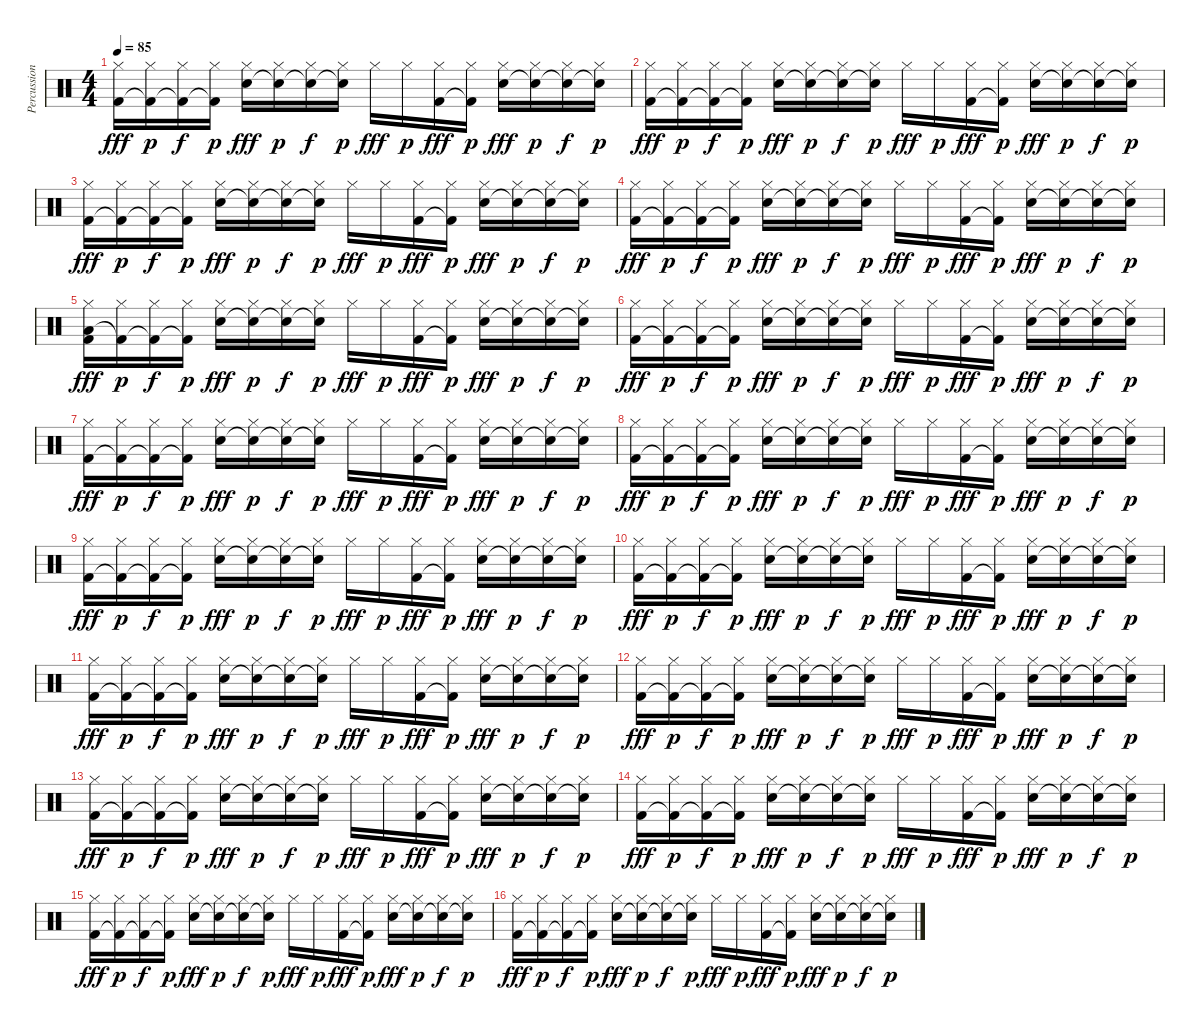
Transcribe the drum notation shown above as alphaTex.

\track ("Percussion" "Percussion") {instrument percussion}
\staff {score}
\articulation defaults
\ts (4 4)
\tempo 85
\clef neutral
\ks c
("Hi-Hat (closed)" "Kick (hit) 2").16{dy fff} ("Hi-Hat (closed)" "Kick (hit) 2"{t}).16{dy p} ("Hi-Hat (closed)" "Kick (hit) 2"{t}).16{dy f} ("Hi-Hat (closed)" "Kick (hit) 2"{t}).16{dy p} ("Hi-Hat (closed)" "Snare (hit) 2").16{dy fff} ("Hi-Hat (closed)" "Snare (hit) 2"{t}).16{dy p} ("Hi-Hat (closed)" "Snare (hit) 2"{t}).16{dy f} ("Hi-Hat (closed)" "Snare (hit) 2"{t}).16{dy p} "Hi-Hat (closed)".16{dy fff} "Hi-Hat (closed)".16{dy p} ("Hi-Hat (closed)" "Kick (hit) 2").16{dy fff} ("Hi-Hat (closed)" "Kick (hit) 2"{t}).16{dy p} ("Hi-Hat (closed)" "Snare (hit) 2").16{dy fff} ("Hi-Hat (closed)" "Snare (hit) 2"{t}).16{dy p} ("Hi-Hat (closed)" "Snare (hit) 2"{t}).16{dy f} ("Hi-Hat (closed)" "Snare (hit) 2"{t}).16{dy p} |
("Hi-Hat (closed)" "Kick (hit) 2").16{dy fff} ("Hi-Hat (closed)" "Kick (hit) 2"{t}).16{dy p} ("Hi-Hat (closed)" "Kick (hit) 2"{t}).16{dy f} ("Hi-Hat (closed)" "Kick (hit) 2"{t}).16{dy p} ("Hi-Hat (closed)" "Snare (hit) 2").16{dy fff} ("Hi-Hat (closed)" "Snare (hit) 2"{t}).16{dy p} ("Hi-Hat (closed)" "Snare (hit) 2"{t}).16{dy f} ("Hi-Hat (closed)" "Snare (hit) 2"{t}).16{dy p} "Hi-Hat (closed)".16{dy fff} "Hi-Hat (closed)".16{dy p} ("Hi-Hat (closed)" "Kick (hit) 2").16{dy fff} ("Hi-Hat (closed)" "Kick (hit) 2"{t}).16{dy p} ("Hi-Hat (closed)" "Snare (hit) 2").16{dy fff} ("Hi-Hat (closed)" "Snare (hit) 2"{t}).16{dy p} ("Hi-Hat (closed)" "Snare (hit) 2"{t}).16{dy f} ("Hi-Hat (closed)" "Snare (hit) 2"{t}).16{dy p} |
("Hi-Hat (closed)" "Kick (hit) 2").16{dy fff} ("Hi-Hat (closed)" "Kick (hit) 2"{t}).16{dy p} ("Hi-Hat (closed)" "Kick (hit) 2"{t}).16{dy f} ("Hi-Hat (closed)" "Kick (hit) 2"{t}).16{dy p} ("Hi-Hat (closed)" "Snare (hit) 2").16{dy fff} ("Hi-Hat (closed)" "Snare (hit) 2"{t}).16{dy p} ("Hi-Hat (closed)" "Snare (hit) 2"{t}).16{dy f} ("Hi-Hat (closed)" "Snare (hit) 2"{t}).16{dy p} "Hi-Hat (closed)".16{dy fff} "Hi-Hat (closed)".16{dy p} ("Hi-Hat (closed)" "Kick (hit) 2").16{dy fff} ("Hi-Hat (closed)" "Kick (hit) 2"{t}).16{dy p} ("Hi-Hat (closed)" "Snare (hit) 2").16{dy fff} ("Hi-Hat (closed)" "Snare (hit) 2"{t}).16{dy p} ("Hi-Hat (closed)" "Snare (hit) 2"{t}).16{dy f} ("Hi-Hat (closed)" "Snare (hit) 2"{t}).16{dy p} |
("Hi-Hat (closed)" "Kick (hit) 2").16{dy fff} ("Hi-Hat (closed)" "Kick (hit) 2"{t}).16{dy p} ("Hi-Hat (closed)" "Kick (hit) 2"{t}).16{dy f} ("Hi-Hat (closed)" "Kick (hit) 2"{t}).16{dy p} ("Hi-Hat (closed)" "Snare (hit) 2").16{dy fff} ("Hi-Hat (closed)" "Snare (hit) 2"{t}).16{dy p} ("Hi-Hat (closed)" "Snare (hit) 2"{t}).16{dy f} ("Hi-Hat (closed)" "Snare (hit) 2"{t}).16{dy p} "Hi-Hat (closed)".16{dy fff} "Hi-Hat (closed)".16{dy p} ("Hi-Hat (closed)" "Kick (hit) 2").16{dy fff} ("Hi-Hat (closed)" "Kick (hit) 2"{t}).16{dy p} ("Hi-Hat (closed)" "Snare (hit) 2").16{dy fff} ("Hi-Hat (closed)" "Snare (hit) 2"{t}).16{dy p} ("Hi-Hat (closed)" "Snare (hit) 2"{t}).16{dy f} ("Hi-Hat (closed)" "Snare (hit) 2"{t}).16{dy p} |
("Hi-Hat (closed)" "Low Tom (hit)" "Kick (hit) 2").16{dy fff} ("Hi-Hat (closed)" "Kick (hit) 2"{t}).16{dy p} ("Hi-Hat (closed)" "Kick (hit) 2"{t}).16{dy f} ("Hi-Hat (closed)" "Kick (hit) 2"{t}).16{dy p} ("Hi-Hat (closed)" "Snare (hit) 2").16{dy fff} ("Hi-Hat (closed)" "Snare (hit) 2"{t}).16{dy p} ("Hi-Hat (closed)" "Snare (hit) 2"{t}).16{dy f} ("Hi-Hat (closed)" "Snare (hit) 2"{t}).16{dy p} "Hi-Hat (closed)".16{dy fff} "Hi-Hat (closed)".16{dy p} ("Hi-Hat (closed)" "Kick (hit) 2").16{dy fff} ("Hi-Hat (closed)" "Kick (hit) 2"{t}).16{dy p} ("Hi-Hat (closed)" "Snare (hit) 2").16{dy fff} ("Hi-Hat (closed)" "Snare (hit) 2"{t}).16{dy p} ("Hi-Hat (closed)" "Snare (hit) 2"{t}).16{dy f} ("Hi-Hat (closed)" "Snare (hit) 2"{t}).16{dy p} |
("Hi-Hat (closed)" "Kick (hit) 2").16{dy fff} ("Hi-Hat (closed)" "Kick (hit) 2"{t}).16{dy p} ("Hi-Hat (closed)" "Kick (hit) 2"{t}).16{dy f} ("Hi-Hat (closed)" "Kick (hit) 2"{t}).16{dy p} ("Hi-Hat (closed)" "Snare (hit) 2").16{dy fff} ("Hi-Hat (closed)" "Snare (hit) 2"{t}).16{dy p} ("Hi-Hat (closed)" "Snare (hit) 2"{t}).16{dy f} ("Hi-Hat (closed)" "Snare (hit) 2"{t}).16{dy p} "Hi-Hat (closed)".16{dy fff} "Hi-Hat (closed)".16{dy p} ("Hi-Hat (closed)" "Kick (hit) 2").16{dy fff} ("Hi-Hat (closed)" "Kick (hit) 2"{t}).16{dy p} ("Hi-Hat (closed)" "Snare (hit) 2").16{dy fff} ("Hi-Hat (closed)" "Snare (hit) 2"{t}).16{dy p} ("Hi-Hat (closed)" "Snare (hit) 2"{t}).16{dy f} ("Hi-Hat (closed)" "Snare (hit) 2"{t}).16{dy p} |
("Hi-Hat (closed)" "Kick (hit) 2").16{dy fff} ("Hi-Hat (closed)" "Kick (hit) 2"{t}).16{dy p} ("Hi-Hat (closed)" "Kick (hit) 2"{t}).16{dy f} ("Hi-Hat (closed)" "Kick (hit) 2"{t}).16{dy p} ("Hi-Hat (closed)" "Snare (hit) 2").16{dy fff} ("Hi-Hat (closed)" "Snare (hit) 2"{t}).16{dy p} ("Hi-Hat (closed)" "Snare (hit) 2"{t}).16{dy f} ("Hi-Hat (closed)" "Snare (hit) 2"{t}).16{dy p} "Hi-Hat (closed)".16{dy fff} "Hi-Hat (closed)".16{dy p} ("Hi-Hat (closed)" "Kick (hit) 2").16{dy fff} ("Hi-Hat (closed)" "Kick (hit) 2"{t}).16{dy p} ("Hi-Hat (closed)" "Snare (hit) 2").16{dy fff} ("Hi-Hat (closed)" "Snare (hit) 2"{t}).16{dy p} ("Hi-Hat (closed)" "Snare (hit) 2"{t}).16{dy f} ("Hi-Hat (closed)" "Snare (hit) 2"{t}).16{dy p} |
("Hi-Hat (closed)" "Kick (hit) 2").16{dy fff} ("Hi-Hat (closed)" "Kick (hit) 2"{t}).16{dy p} ("Hi-Hat (closed)" "Kick (hit) 2"{t}).16{dy f} ("Hi-Hat (closed)" "Kick (hit) 2"{t}).16{dy p} ("Hi-Hat (closed)" "Snare (hit) 2").16{dy fff} ("Hi-Hat (closed)" "Snare (hit) 2"{t}).16{dy p} ("Hi-Hat (closed)" "Snare (hit) 2"{t}).16{dy f} ("Hi-Hat (closed)" "Snare (hit) 2"{t}).16{dy p} "Hi-Hat (closed)".16{dy fff} "Hi-Hat (closed)".16{dy p} ("Hi-Hat (closed)" "Kick (hit) 2").16{dy fff} ("Hi-Hat (closed)" "Kick (hit) 2"{t}).16{dy p} ("Hi-Hat (closed)" "Snare (hit) 2").16{dy fff} ("Hi-Hat (closed)" "Snare (hit) 2"{t}).16{dy p} ("Hi-Hat (closed)" "Snare (hit) 2"{t}).16{dy f} ("Hi-Hat (closed)" "Snare (hit) 2"{t}).16{dy p} |
("Hi-Hat (closed)" "Kick (hit) 2").16{dy fff} ("Hi-Hat (closed)" "Kick (hit) 2"{t}).16{dy p} ("Hi-Hat (closed)" "Kick (hit) 2"{t}).16{dy f} ("Hi-Hat (closed)" "Kick (hit) 2"{t}).16{dy p} ("Hi-Hat (closed)" "Snare (hit) 2").16{dy fff} ("Hi-Hat (closed)" "Snare (hit) 2"{t}).16{dy p} ("Hi-Hat (closed)" "Snare (hit) 2"{t}).16{dy f} ("Hi-Hat (closed)" "Snare (hit) 2"{t}).16{dy p} "Hi-Hat (closed)".16{dy fff} "Hi-Hat (closed)".16{dy p} ("Hi-Hat (closed)" "Kick (hit) 2").16{dy fff} ("Hi-Hat (closed)" "Kick (hit) 2"{t}).16{dy p} ("Hi-Hat (closed)" "Snare (hit) 2").16{dy fff} ("Hi-Hat (closed)" "Snare (hit) 2"{t}).16{dy p} ("Hi-Hat (closed)" "Snare (hit) 2"{t}).16{dy f} ("Hi-Hat (closed)" "Snare (hit) 2"{t}).16{dy p} |
("Hi-Hat (closed)" "Kick (hit) 2").16{dy fff} ("Hi-Hat (closed)" "Kick (hit) 2"{t}).16{dy p} ("Hi-Hat (closed)" "Kick (hit) 2"{t}).16{dy f} ("Hi-Hat (closed)" "Kick (hit) 2"{t}).16{dy p} ("Hi-Hat (closed)" "Snare (hit) 2").16{dy fff} ("Hi-Hat (closed)" "Snare (hit) 2"{t}).16{dy p} ("Hi-Hat (closed)" "Snare (hit) 2"{t}).16{dy f} ("Hi-Hat (closed)" "Snare (hit) 2"{t}).16{dy p} "Hi-Hat (closed)".16{dy fff} "Hi-Hat (closed)".16{dy p} ("Hi-Hat (closed)" "Kick (hit) 2").16{dy fff} ("Hi-Hat (closed)" "Kick (hit) 2"{t}).16{dy p} ("Hi-Hat (closed)" "Snare (hit) 2").16{dy fff} ("Hi-Hat (closed)" "Snare (hit) 2"{t}).16{dy p} ("Hi-Hat (closed)" "Snare (hit) 2"{t}).16{dy f} ("Hi-Hat (closed)" "Snare (hit) 2"{t}).16{dy p} |
("Hi-Hat (closed)" "Kick (hit) 2").16{dy fff} ("Hi-Hat (closed)" "Kick (hit) 2"{t}).16{dy p} ("Hi-Hat (closed)" "Kick (hit) 2"{t}).16{dy f} ("Hi-Hat (closed)" "Kick (hit) 2"{t}).16{dy p} ("Hi-Hat (closed)" "Snare (hit) 2").16{dy fff} ("Hi-Hat (closed)" "Snare (hit) 2"{t}).16{dy p} ("Hi-Hat (closed)" "Snare (hit) 2"{t}).16{dy f} ("Hi-Hat (closed)" "Snare (hit) 2"{t}).16{dy p} "Hi-Hat (closed)".16{dy fff} "Hi-Hat (closed)".16{dy p} ("Hi-Hat (closed)" "Kick (hit) 2").16{dy fff} ("Hi-Hat (closed)" "Kick (hit) 2"{t}).16{dy p} ("Hi-Hat (closed)" "Snare (hit) 2").16{dy fff} ("Hi-Hat (closed)" "Snare (hit) 2"{t}).16{dy p} ("Hi-Hat (closed)" "Snare (hit) 2"{t}).16{dy f} ("Hi-Hat (closed)" "Snare (hit) 2"{t}).16{dy p} |
("Hi-Hat (closed)" "Kick (hit) 2").16{dy fff} ("Hi-Hat (closed)" "Kick (hit) 2"{t}).16{dy p} ("Hi-Hat (closed)" "Kick (hit) 2"{t}).16{dy f} ("Hi-Hat (closed)" "Kick (hit) 2"{t}).16{dy p} ("Hi-Hat (closed)" "Snare (hit) 2").16{dy fff} ("Hi-Hat (closed)" "Snare (hit) 2"{t}).16{dy p} ("Hi-Hat (closed)" "Snare (hit) 2"{t}).16{dy f} ("Hi-Hat (closed)" "Snare (hit) 2"{t}).16{dy p} "Hi-Hat (closed)".16{dy fff} "Hi-Hat (closed)".16{dy p} ("Hi-Hat (closed)" "Kick (hit) 2").16{dy fff} ("Hi-Hat (closed)" "Kick (hit) 2"{t}).16{dy p} ("Hi-Hat (closed)" "Snare (hit) 2").16{dy fff} ("Hi-Hat (closed)" "Snare (hit) 2"{t}).16{dy p} ("Hi-Hat (closed)" "Snare (hit) 2"{t}).16{dy f} ("Hi-Hat (closed)" "Snare (hit) 2"{t}).16{dy p} |
("Hi-Hat (closed)" "Kick (hit) 2").16{dy fff} ("Hi-Hat (closed)" "Kick (hit) 2"{t}).16{dy p} ("Hi-Hat (closed)" "Kick (hit) 2"{t}).16{dy f} ("Hi-Hat (closed)" "Kick (hit) 2"{t}).16{dy p} ("Hi-Hat (closed)" "Snare (hit) 2").16{dy fff} ("Hi-Hat (closed)" "Snare (hit) 2"{t}).16{dy p} ("Hi-Hat (closed)" "Snare (hit) 2"{t}).16{dy f} ("Hi-Hat (closed)" "Snare (hit) 2"{t}).16{dy p} "Hi-Hat (closed)".16{dy fff} "Hi-Hat (closed)".16{dy p} ("Hi-Hat (closed)" "Kick (hit) 2").16{dy fff} ("Hi-Hat (closed)" "Kick (hit) 2"{t}).16{dy p} ("Hi-Hat (closed)" "Snare (hit) 2").16{dy fff} ("Hi-Hat (closed)" "Snare (hit) 2"{t}).16{dy p} ("Hi-Hat (closed)" "Snare (hit) 2"{t}).16{dy f} ("Hi-Hat (closed)" "Snare (hit) 2"{t}).16{dy p} |
("Hi-Hat (closed)" "Kick (hit) 2").16{dy fff} ("Hi-Hat (closed)" "Kick (hit) 2"{t}).16{dy p} ("Hi-Hat (closed)" "Kick (hit) 2"{t}).16{dy f} ("Hi-Hat (closed)" "Kick (hit) 2"{t}).16{dy p} ("Hi-Hat (closed)" "Snare (hit) 2").16{dy fff} ("Hi-Hat (closed)" "Snare (hit) 2"{t}).16{dy p} ("Hi-Hat (closed)" "Snare (hit) 2"{t}).16{dy f} ("Hi-Hat (closed)" "Snare (hit) 2"{t}).16{dy p} "Hi-Hat (closed)".16{dy fff} "Hi-Hat (closed)".16{dy p} ("Hi-Hat (closed)" "Kick (hit) 2").16{dy fff} ("Hi-Hat (closed)" "Kick (hit) 2"{t}).16{dy p} ("Hi-Hat (closed)" "Snare (hit) 2").16{dy fff} ("Hi-Hat (closed)" "Snare (hit) 2"{t}).16{dy p} ("Hi-Hat (closed)" "Snare (hit) 2"{t}).16{dy f} ("Hi-Hat (closed)" "Snare (hit) 2"{t}).16{dy p} |
("Hi-Hat (closed)" "Kick (hit) 2").16{dy fff} ("Hi-Hat (closed)" "Kick (hit) 2"{t}).16{dy p} ("Hi-Hat (closed)" "Kick (hit) 2"{t}).16{dy f} ("Hi-Hat (closed)" "Kick (hit) 2"{t}).16{dy p} ("Hi-Hat (closed)" "Snare (hit) 2").16{dy fff} ("Hi-Hat (closed)" "Snare (hit) 2"{t}).16{dy p} ("Hi-Hat (closed)" "Snare (hit) 2"{t}).16{dy f} ("Hi-Hat (closed)" "Snare (hit) 2"{t}).16{dy p} "Hi-Hat (closed)".16{dy fff} "Hi-Hat (closed)".16{dy p} ("Hi-Hat (closed)" "Kick (hit) 2").16{dy fff} ("Hi-Hat (closed)" "Kick (hit) 2"{t}).16{dy p} ("Hi-Hat (closed)" "Snare (hit) 2").16{dy fff} ("Hi-Hat (closed)" "Snare (hit) 2"{t}).16{dy p} ("Hi-Hat (closed)" "Snare (hit) 2"{t}).16{dy f} ("Hi-Hat (closed)" "Snare (hit) 2"{t}).16{dy p} |
("Hi-Hat (closed)" "Kick (hit) 2").16{dy fff} ("Hi-Hat (closed)" "Kick (hit) 2"{t}).16{dy p} ("Hi-Hat (closed)" "Kick (hit) 2"{t}).16{dy f} ("Hi-Hat (closed)" "Kick (hit) 2"{t}).16{dy p} ("Hi-Hat (closed)" "Snare (hit) 2").16{dy fff} ("Hi-Hat (closed)" "Snare (hit) 2"{t}).16{dy p} ("Hi-Hat (closed)" "Snare (hit) 2"{t}).16{dy f} ("Hi-Hat (closed)" "Snare (hit) 2"{t}).16{dy p} "Hi-Hat (closed)".16{dy fff} "Hi-Hat (closed)".16{dy p} ("Hi-Hat (closed)" "Kick (hit) 2").16{dy fff} ("Hi-Hat (closed)" "Kick (hit) 2"{t}).16{dy p} ("Hi-Hat (closed)" "Snare (hit) 2").16{dy fff} ("Hi-Hat (closed)" "Snare (hit) 2"{t}).16{dy p} ("Hi-Hat (closed)" "Snare (hit) 2"{t}).16{dy f} ("Hi-Hat (closed)" "Snare (hit) 2"{t}).16{dy p}
